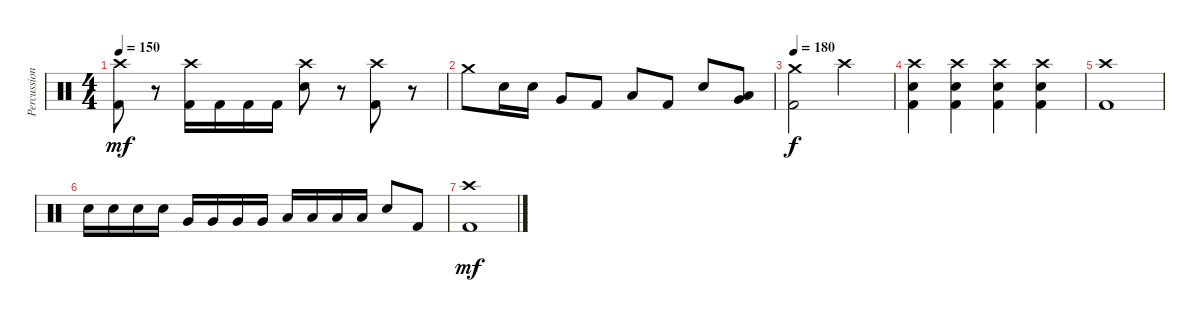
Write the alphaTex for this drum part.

\track ("Percussions" "Percussion") {instrument percussion}
\staff {score}
\articulation defaults
\ts (4 4)
\tempo 150
\clef neutral
\ks c
("Crash high (hit)" "Kick (hit) 2").8{dy mf} r.8 ("Crash high (hit)" "Kick (hit) 2").16 "Kick (hit) 2".16 "Kick (hit) 2".16 "Kick (hit) 2".16 ("Crash high (hit)" "Electric Snare (hit)").8 r.8 ("Crash high (hit)" "Kick (hit) 2").8 r.8 |
"Crash medium (hit)".8 "Electric Snare (hit)".16 "Electric Snare (hit)".16 "Very Low Tom (hit)".8 "Kick (hit) 2".8 "Low Floor Tom (hit)".8 "Kick (hit) 2".8 "Electric Snare (hit)".8 ("Very Low Tom (hit)" "Low Floor Tom (hit)").8 |
\tempo 180
("Crash medium (hit)" "Kick (hit) 2").2{dy f} "Crash high (hit)".2 |
("Crash high (hit)" "Electric Snare (hit)" "Kick (hit) 2").4 ("Crash high (hit)" "Electric Snare (hit)" "Kick (hit) 2").4 ("Crash high (hit)" "Electric Snare (hit)" "Kick (hit) 2").4 ("Crash high (hit)" "Electric Snare (hit)" "Kick (hit) 2").4 |
("Crash high (hit)" "Kick (hit) 2").1 |
"Electric Snare (hit)".16 "Electric Snare (hit)".16 "Electric Snare (hit)".16 "Electric Snare (hit)".16 "Very Low Tom (hit)".16 "Very Low Tom (hit)".16 "Very Low Tom (hit)".16 "Very Low Tom (hit)".16 "Low Floor Tom (hit)".16 "Low Floor Tom (hit)".16 "Low Floor Tom (hit)".16 "Low Floor Tom (hit)".16 "Electric Snare (hit)".8 "Kick (hit) 2".8 |
("Crash high (hit)" "Kick (hit) 2").1{dy mf}
